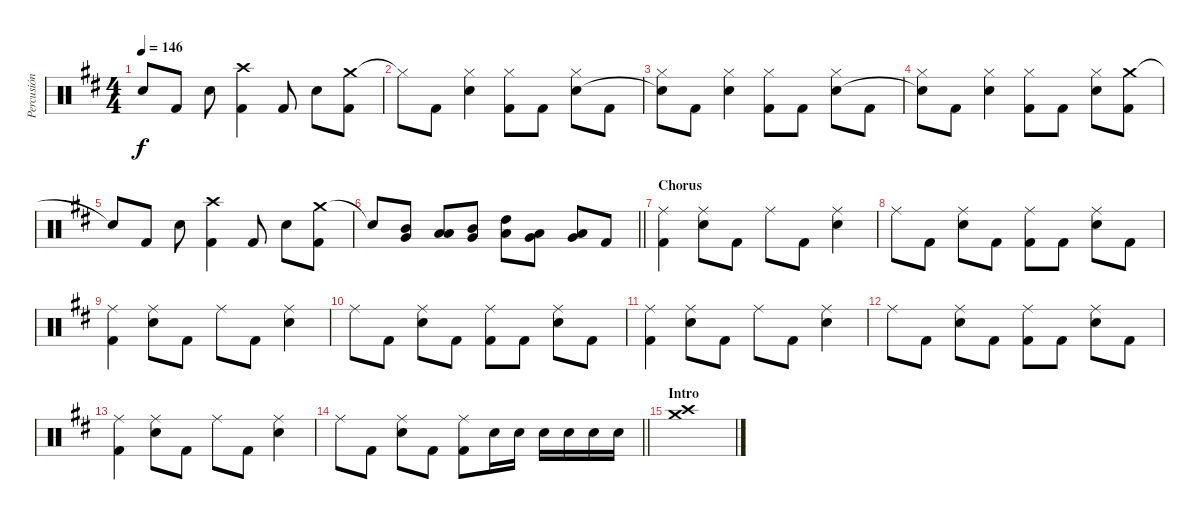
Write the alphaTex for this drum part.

\track ("Percusión" "Percusión") {instrument percussion}
\staff {score}
\articulation defaults
\ts (4 4)
\tempo 146
\clef neutral
\ks d "Snare (hit)"{t}.8{dy f} "Kick (hit) 2".8 "Snare (hit) 2".8
("Crash high (hit)" "Kick (hit) 2").4 "Kick (hit) 2".8 "Snare (hit) 2".8 ("Crash medium (hit)" "Kick (hit) 2").8 |
"Hi-Hat (closed)"{t}.8 "Kick (hit) 2".8 ("Hi-Hat (closed)" "Snare (hit) 2").4 ("Hi-Hat (closed)" "Kick (hit) 2").8 "Kick (hit) 2".8 ("Hi-Hat (closed)" "Snare (hit) 2").8 "Kick (hit) 2".8 |
("Hi-Hat (closed)" "Snare (hit)"{t}).8 "Kick (hit) 2".8 ("Hi-Hat (closed)" "Snare (hit) 2").4 ("Hi-Hat (closed)" "Kick (hit) 2").8 "Kick (hit) 2".8 ("Hi-Hat (closed)" "Snare (hit) 2").8 "Kick (hit) 2".8 |
("Hi-Hat (closed)" "Snare (hit)"{t}).8 "Kick (hit) 2".8 ("Hi-Hat (closed)" "Snare (hit) 2").4 ("Hi-Hat (closed)" "Kick (hit) 2").8 "Kick (hit) 2".8 ("Hi-Hat (closed)" "Snare (hit) 2").8 ("Crash medium (hit)" "Kick (hit) 2").8 |
"Snare (hit)"{t}.8 "Kick (hit) 2".8 "Snare (hit) 2".8 ("Crash high (hit)" "Kick (hit) 2").4 "Kick (hit) 2".8 "Snare (hit) 2".8 ("Crash medium (hit)" "Kick (hit) 2").8 |
\barLineRight lightlight "Snare (hit)"{t}.8
("Mid Tom (hit)" "Very Low Tom (hit)").8 ("Low Floor Tom (hit)" "Low Tom (hit)").8 ("Very Low Tom (hit)" "Mid Tom (hit)").8 ("Low Tom (hit)" "High Tom (hit)").8 ("Very Low Tom (hit)" "Low Floor Tom (hit)").8 ("Low Tom (hit)" "Very Low Tom (hit)").8 "Kick (hit) 2".8 |
\section ("" "Chorus")
("Ride (middle)" "Kick (hit) 2").4 ("Ride (middle)" "Snare (hit) 2").8 "Kick (hit) 2".8 "Ride (middle)".8 "Kick (hit) 2".8 ("Ride (middle)" "Snare (hit) 2").4 |
"Ride (middle)".8 "Kick (hit) 2".8 ("Ride (middle)" "Snare (hit) 2").8 "Kick (hit) 2".8 ("Ride (middle)" "Kick (hit) 2").8 "Kick (hit) 2".8 ("Ride (middle)" "Snare (hit) 2").8 "Kick (hit) 2".8 |
("Ride (middle)" "Kick (hit) 2").4 ("Ride (middle)" "Snare (hit) 2").8 "Kick (hit) 2".8 "Ride (middle)".8 "Kick (hit) 2".8 ("Ride (middle)" "Snare (hit) 2").4 |
"Ride (middle)".8 "Kick (hit) 2".8 ("Ride (middle)" "Snare (hit) 2").8 "Kick (hit) 2".8 ("Ride (middle)" "Kick (hit) 2").8 "Kick (hit) 2".8 ("Ride (middle)" "Snare (hit) 2").8 "Kick (hit) 2".8 |
("Ride (middle)" "Kick (hit) 2").4 ("Ride (middle)" "Snare (hit) 2").8 "Kick (hit) 2".8 "Ride (middle)".8 "Kick (hit) 2".8 ("Ride (middle)" "Snare (hit) 2").4 |
"Ride (middle)".8 "Kick (hit) 2".8 ("Ride (middle)" "Snare (hit) 2").8 "Kick (hit) 2".8 ("Ride (middle)" "Kick (hit) 2").8 "Kick (hit) 2".8 ("Ride (middle)" "Snare (hit) 2").8 "Kick (hit) 2".8 |
("Ride (middle)" "Kick (hit) 2").4 ("Ride (middle)" "Snare (hit) 2").8 "Kick (hit) 2".8 "Ride (middle)".8 "Kick (hit) 2".8 ("Ride (middle)" "Snare (hit) 2").4 |
\barLineRight lightlight "Ride (middle)".8 "Kick (hit) 2".8
("Ride (middle)" "Snare (hit) 2").8 "Kick (hit) 2".8 ("Ride (middle)" "Kick (hit) 2").8 "Snare (hit) 2".16 "Snare (hit) 2".16 "Snare (hit) 2".16 "Snare (hit) 2".16 "Snare (hit) 2".16 "Snare (hit) 2".16 |
\section ("" "Intro")
("Crash medium (hit)" "Crash high (hit)").1
